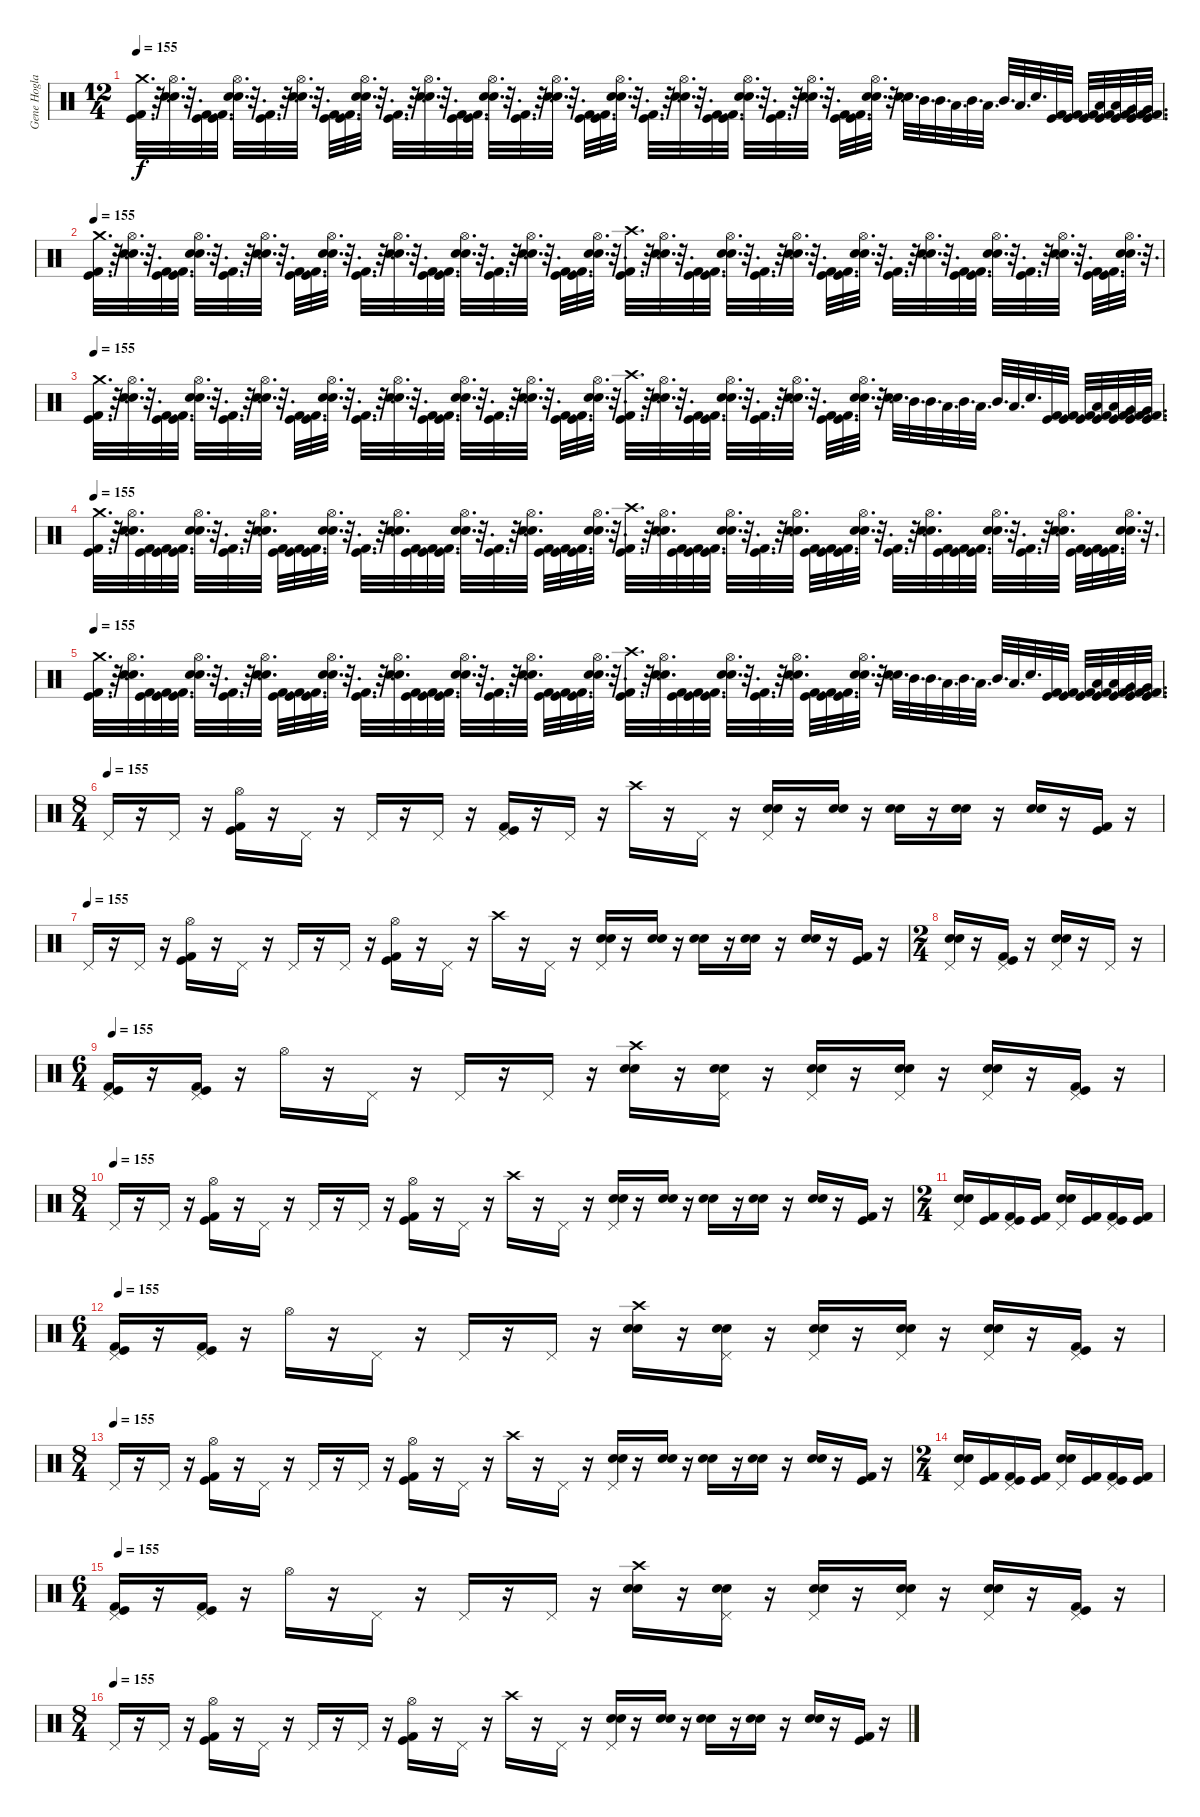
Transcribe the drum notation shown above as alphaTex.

\track ("Gene Hoglan" "Gene Hogla") {instrument percussion}
\staff {score}
\articulation defaults
\ts (12 4)
\tempo 155
\clef neutral
\ks c
("Crash medium (hit)" "Kick (hit)" "Kick (hit) 2").32{d dy f} r.32{d} ("Hi-Hat (open)" "Snare (hit) 2" "Electric Snare (hit)").32{d} r.32{d} ("Kick (hit) 2" "Kick (hit)").32{d} ("Kick (hit) 2" "Kick (hit)").32{d} ("Hi-Hat (open)" "Snare (hit) 2" "Electric Snare (hit)").32{d} r.32{d} ("Kick (hit) 2" "Kick (hit)").32{d} r.32{d} ("Hi-Hat (open)" "Snare (hit) 2" "Electric Snare (hit)").32{d} r.32{d} ("Kick (hit) 2" "Kick (hit)").32{d} ("Kick (hit) 2" "Kick (hit)").32{d} ("Hi-Hat (open)" "Snare (hit) 2" "Electric Snare (hit)").32{d} r.32{d} ("Kick (hit) 2" "Kick (hit)").32{d} r.32{d} ("Hi-Hat (open)" "Snare (hit) 2" "Electric Snare (hit)").32{d} r.32{d} ("Kick (hit) 2" "Kick (hit)").32{d} ("Kick (hit) 2" "Kick (hit)").32{d} ("Hi-Hat (open)" "Snare (hit) 2" "Electric Snare (hit)").32{d} r.32{d} ("Kick (hit) 2" "Kick (hit)").32{d} r.32{d} ("Hi-Hat (open)" "Snare (hit) 2" "Electric Snare (hit)").32{d} r.32{d} ("Kick (hit) 2" "Kick (hit)").32{d} ("Kick (hit) 2" "Kick (hit)").32{d} ("Hi-Hat (open)" "Snare (hit) 2" "Electric Snare (hit)").32{d} r.32{d} ("Kick (hit) 2" "Kick (hit)").32{d} r.32{d} ("Hi-Hat (open)" "Snare (hit) 2" "Electric Snare (hit)").32{d} r.32{d} ("Kick (hit) 2" "Kick (hit)").32{d} ("Kick (hit) 2" "Kick (hit)").32{d} ("Hi-Hat (open)" "Snare (hit) 2" "Electric Snare (hit)").32{d} r.32{d} ("Kick (hit) 2" "Kick (hit)").32{d} r.32{d} ("Hi-Hat (open)" "Snare (hit) 2" "Electric Snare (hit)").32{d} r.32{d} ("Kick (hit) 2" "Kick (hit)").32{d} ("Kick (hit) 2" "Kick (hit)").32{d} ("Hi-Hat (open)" "Snare (hit) 2" "Electric Snare (hit)").32{d} r.32{d} ("Snare (hit) 2" "Electric Snare (hit)").32{d} "Mid Tom (hit)".32{d} "Mid Tom (hit)".32{d} "Low Tom (hit)".32{d} "Mid Tom (hit)".32{d} "Low Tom (hit)".32{d} "Mid Tom (hit)".32{d} "Low Tom (hit)".32{d} "Electric Snare (hit)".32{d} ("Kick (hit) 2" "Kick (hit)").32{d} ("Kick (hit) 2" "Kick (hit)").32{d} ("Kick (hit) 2" "Kick (hit)").32{d} ("Low Tom (hit)" "Kick (hit) 2" "Kick (hit)").32{d} ("Low Tom (hit)" "Kick (hit) 2" "Kick (hit)").32{d} ("Very Low Tom (hit)" "Kick (hit) 2" "Kick (hit)").32{d} ("Very Low Tom (hit)" "Kick (hit) 2" "Kick (hit)").32{d} |
\tempo 155
("Crash medium (hit)" "Kick (hit)" "Kick (hit) 2").32{d} r.32{d} ("Hi-Hat (open)" "Snare (hit) 2" "Electric Snare (hit)").32{d} r.32{d} ("Kick (hit) 2" "Kick (hit)").32{d} ("Kick (hit) 2" "Kick (hit)").32{d} ("Hi-Hat (open)" "Snare (hit) 2" "Electric Snare (hit)").32{d} r.32{d} ("Kick (hit) 2" "Kick (hit)").32{d} r.32{d} ("Hi-Hat (open)" "Snare (hit) 2" "Electric Snare (hit)").32{d} r.32{d} ("Kick (hit) 2" "Kick (hit)").32{d} ("Kick (hit) 2" "Kick (hit)").32{d} ("Hi-Hat (open)" "Snare (hit) 2" "Electric Snare (hit)").32{d} r.32{d} ("Kick (hit) 2" "Kick (hit)").32{d} r.32{d} ("Hi-Hat (open)" "Snare (hit) 2" "Electric Snare (hit)").32{d} r.32{d} ("Kick (hit) 2" "Kick (hit)").32{d} ("Kick (hit) 2" "Kick (hit)").32{d} ("Hi-Hat (open)" "Snare (hit) 2" "Electric Snare (hit)").32{d} r.32{d} ("Kick (hit) 2" "Kick (hit)").32{d} r.32{d} ("Hi-Hat (open)" "Snare (hit) 2" "Electric Snare (hit)").32{d} r.32{d} ("Kick (hit) 2" "Kick (hit)").32{d} ("Kick (hit) 2" "Kick (hit)").32{d} ("Hi-Hat (open)" "Snare (hit) 2" "Electric Snare (hit)").32{d} r.32{d} ("Crash high (hit)" "Kick (hit) 2" "Kick (hit)").32{d} r.32{d} ("Hi-Hat (open)" "Snare (hit) 2" "Electric Snare (hit)").32{d} r.32{d} ("Kick (hit) 2" "Kick (hit)").32{d} ("Kick (hit) 2" "Kick (hit)").32{d} ("Hi-Hat (open)" "Snare (hit) 2" "Electric Snare (hit)").32{d} r.32{d} ("Kick (hit) 2" "Kick (hit)").32{d} r.32{d} ("Hi-Hat (open)" "Snare (hit) 2" "Electric Snare (hit)").32{d} r.32{d} ("Kick (hit) 2" "Kick (hit)").32{d} ("Kick (hit) 2" "Kick (hit)").32{d} ("Hi-Hat (open)" "Snare (hit) 2" "Electric Snare (hit)").32{d} r.32{d} ("Kick (hit) 2" "Kick (hit)").32{d} r.32{d} ("Hi-Hat (open)" "Snare (hit) 2" "Electric Snare (hit)").32{d} r.32{d} ("Kick (hit) 2" "Kick (hit)").32{d} ("Kick (hit) 2" "Kick (hit)").32{d} ("Hi-Hat (open)" "Snare (hit) 2" "Electric Snare (hit)").32{d} r.32{d} ("Kick (hit) 2" "Kick (hit)").32{d} r.32{d} ("Hi-Hat (open)" "Snare (hit) 2" "Electric Snare (hit)").32{d} r.32{d} ("Kick (hit) 2" "Kick (hit)").32{d} ("Kick (hit) 2" "Kick (hit)").32{d} ("Hi-Hat (open)" "Snare (hit) 2" "Electric Snare (hit)").32{d} r.32{d} |
\tempo 155
("Crash medium (hit)" "Kick (hit)" "Kick (hit) 2").32{d} r.32{d} ("Hi-Hat (open)" "Snare (hit) 2" "Electric Snare (hit)").32{d} r.32{d} ("Kick (hit) 2" "Kick (hit)").32{d} ("Kick (hit) 2" "Kick (hit)").32{d} ("Hi-Hat (open)" "Snare (hit) 2" "Electric Snare (hit)").32{d} r.32{d} ("Kick (hit) 2" "Kick (hit)").32{d} r.32{d} ("Hi-Hat (open)" "Snare (hit) 2" "Electric Snare (hit)").32{d} r.32{d} ("Kick (hit) 2" "Kick (hit)").32{d} ("Kick (hit) 2" "Kick (hit)").32{d} ("Hi-Hat (open)" "Snare (hit) 2" "Electric Snare (hit)").32{d} r.32{d} ("Kick (hit) 2" "Kick (hit)").32{d} r.32{d} ("Hi-Hat (open)" "Snare (hit) 2" "Electric Snare (hit)").32{d} r.32{d} ("Kick (hit) 2" "Kick (hit)").32{d} ("Kick (hit) 2" "Kick (hit)").32{d} ("Hi-Hat (open)" "Snare (hit) 2" "Electric Snare (hit)").32{d} r.32{d} ("Kick (hit) 2" "Kick (hit)").32{d} r.32{d} ("Hi-Hat (open)" "Snare (hit) 2" "Electric Snare (hit)").32{d} r.32{d} ("Kick (hit) 2" "Kick (hit)").32{d} ("Kick (hit) 2" "Kick (hit)").32{d} ("Hi-Hat (open)" "Snare (hit) 2" "Electric Snare (hit)").32{d} r.32{d} ("Crash high (hit)" "Kick (hit) 2" "Kick (hit)").32{d} r.32{d} ("Hi-Hat (open)" "Snare (hit) 2" "Electric Snare (hit)").32{d} r.32{d} ("Kick (hit) 2" "Kick (hit)").32{d} ("Kick (hit) 2" "Kick (hit)").32{d} ("Hi-Hat (open)" "Snare (hit) 2" "Electric Snare (hit)").32{d} r.32{d} ("Kick (hit) 2" "Kick (hit)").32{d} r.32{d} ("Hi-Hat (open)" "Snare (hit) 2" "Electric Snare (hit)").32{d} r.32{d} ("Kick (hit) 2" "Kick (hit)").32{d} ("Kick (hit) 2" "Kick (hit)").32{d} ("Hi-Hat (open)" "Snare (hit) 2" "Electric Snare (hit)").32{d} r.32{d} ("Snare (hit) 2" "Electric Snare (hit)").32{d} "Mid Tom (hit)".32{d} "Mid Tom (hit)".32{d} "Low Tom (hit)".32{d} "Mid Tom (hit)".32{d} "Low Tom (hit)".32{d} "Mid Tom (hit)".32{d} "Low Tom (hit)".32{d} "Electric Snare (hit)".32{d} ("Kick (hit) 2" "Kick (hit)").32{d} ("Kick (hit) 2" "Kick (hit)").32{d} ("Kick (hit) 2" "Kick (hit)").32{d} ("Low Tom (hit)" "Kick (hit) 2" "Kick (hit)").32{d} ("Low Tom (hit)" "Kick (hit) 2" "Kick (hit)").32{d} ("Very Low Tom (hit)" "Kick (hit) 2" "Kick (hit)").32{d} ("Very Low Tom (hit)" "Kick (hit) 2" "Kick (hit)").32{d} |
\tempo 155
("Crash medium (hit)" "Kick (hit)" "Kick (hit) 2").32{d} r.32{d} ("Hi-Hat (open)" "Snare (hit) 2" "Electric Snare (hit)").32{d} ("Kick (hit) 2" "Kick (hit)").32{d} ("Kick (hit) 2" "Kick (hit)").32{d} ("Kick (hit) 2" "Kick (hit)").32{d} ("Hi-Hat (open)" "Snare (hit) 2" "Electric Snare (hit)").32{d} r.32{d} ("Kick (hit) 2" "Kick (hit)").32{d} r.32{d} ("Hi-Hat (open)" "Snare (hit) 2" "Electric Snare (hit)").32{d} ("Kick (hit) 2" "Kick (hit)").32{d} ("Kick (hit) 2" "Kick (hit)").32{d} ("Kick (hit) 2" "Kick (hit)").32{d} ("Hi-Hat (open)" "Snare (hit) 2" "Electric Snare (hit)").32{d} r.32{d} ("Kick (hit) 2" "Kick (hit)").32{d} r.32{d} ("Hi-Hat (open)" "Snare (hit) 2" "Electric Snare (hit)").32{d} ("Kick (hit) 2" "Kick (hit)").32{d} ("Kick (hit) 2" "Kick (hit)").32{d} ("Kick (hit) 2" "Kick (hit)").32{d} ("Hi-Hat (open)" "Snare (hit) 2" "Electric Snare (hit)").32{d} r.32{d} ("Kick (hit) 2" "Kick (hit)").32{d} r.32{d} ("Hi-Hat (open)" "Snare (hit) 2" "Electric Snare (hit)").32{d} ("Kick (hit) 2" "Kick (hit)").32{d} ("Kick (hit) 2" "Kick (hit)").32{d} ("Kick (hit) 2" "Kick (hit)").32{d} ("Hi-Hat (open)" "Snare (hit) 2" "Electric Snare (hit)").32{d} r.32{d} ("Crash high (hit)" "Kick (hit) 2" "Kick (hit)").32{d} r.32{d} ("Hi-Hat (open)" "Snare (hit) 2" "Electric Snare (hit)").32{d} ("Kick (hit) 2" "Kick (hit)").32{d} ("Kick (hit) 2" "Kick (hit)").32{d} ("Kick (hit) 2" "Kick (hit)").32{d} ("Hi-Hat (open)" "Snare (hit) 2" "Electric Snare (hit)").32{d} r.32{d} ("Kick (hit) 2" "Kick (hit)").32{d} r.32{d} ("Hi-Hat (open)" "Snare (hit) 2" "Electric Snare (hit)").32{d} ("Kick (hit) 2" "Kick (hit)").32{d} ("Kick (hit) 2" "Kick (hit)").32{d} ("Kick (hit) 2" "Kick (hit)").32{d} ("Hi-Hat (open)" "Snare (hit) 2" "Electric Snare (hit)").32{d} r.32{d} ("Kick (hit) 2" "Kick (hit)").32{d} r.32{d} ("Hi-Hat (open)" "Snare (hit) 2" "Electric Snare (hit)").32{d} ("Kick (hit) 2" "Kick (hit)").32{d} ("Kick (hit) 2" "Kick (hit)").32{d} ("Kick (hit) 2" "Kick (hit)").32{d} ("Hi-Hat (open)" "Snare (hit) 2" "Electric Snare (hit)").32{d} r.32{d} ("Kick (hit) 2" "Kick (hit)").32{d} r.32{d} ("Hi-Hat (open)" "Snare (hit) 2" "Electric Snare (hit)").32{d} ("Kick (hit) 2" "Kick (hit)").32{d} ("Kick (hit) 2" "Kick (hit)").32{d} ("Kick (hit) 2" "Kick (hit)").32{d} ("Hi-Hat (open)" "Snare (hit) 2" "Electric Snare (hit)").32{d} r.32{d} |
\tempo 155
("Crash medium (hit)" "Kick (hit)" "Kick (hit) 2").32{d} r.32{d} ("Hi-Hat (open)" "Snare (hit) 2" "Electric Snare (hit)").32{d} ("Kick (hit) 2" "Kick (hit)").32{d} ("Kick (hit) 2" "Kick (hit)").32{d} ("Kick (hit) 2" "Kick (hit)").32{d} ("Hi-Hat (open)" "Snare (hit) 2" "Electric Snare (hit)").32{d} r.32{d} ("Kick (hit) 2" "Kick (hit)").32{d} r.32{d} ("Hi-Hat (open)" "Snare (hit) 2" "Electric Snare (hit)").32{d} ("Kick (hit) 2" "Kick (hit)").32{d} ("Kick (hit) 2" "Kick (hit)").32{d} ("Kick (hit) 2" "Kick (hit)").32{d} ("Hi-Hat (open)" "Snare (hit) 2" "Electric Snare (hit)").32{d} r.32{d} ("Kick (hit) 2" "Kick (hit)").32{d} r.32{d} ("Hi-Hat (open)" "Snare (hit) 2" "Electric Snare (hit)").32{d} ("Kick (hit) 2" "Kick (hit)").32{d} ("Kick (hit) 2" "Kick (hit)").32{d} ("Kick (hit) 2" "Kick (hit)").32{d} ("Hi-Hat (open)" "Snare (hit) 2" "Electric Snare (hit)").32{d} r.32{d} ("Kick (hit) 2" "Kick (hit)").32{d} r.32{d} ("Hi-Hat (open)" "Snare (hit) 2" "Electric Snare (hit)").32{d} ("Kick (hit) 2" "Kick (hit)").32{d} ("Kick (hit) 2" "Kick (hit)").32{d} ("Kick (hit) 2" "Kick (hit)").32{d} ("Hi-Hat (open)" "Snare (hit) 2" "Electric Snare (hit)").32{d} r.32{d} ("Crash high (hit)" "Kick (hit) 2" "Kick (hit)").32{d} r.32{d} ("Hi-Hat (open)" "Snare (hit) 2" "Electric Snare (hit)").32{d} ("Kick (hit) 2" "Kick (hit)").32{d} ("Kick (hit) 2" "Kick (hit)").32{d} ("Kick (hit) 2" "Kick (hit)").32{d} ("Hi-Hat (open)" "Snare (hit) 2" "Electric Snare (hit)").32{d} r.32{d} ("Kick (hit) 2" "Kick (hit)").32{d} r.32{d} ("Hi-Hat (open)" "Snare (hit) 2" "Electric Snare (hit)").32{d} ("Kick (hit) 2" "Kick (hit)").32{d} ("Kick (hit) 2" "Kick (hit)").32{d} ("Kick (hit) 2" "Kick (hit)").32{d} ("Hi-Hat (open)" "Snare (hit) 2" "Electric Snare (hit)").32{d} r.32{d} ("Snare (hit) 2" "Electric Snare (hit)").32{d} "Mid Tom (hit)".32{d} "Mid Tom (hit)".32{d} "Low Tom (hit)".32{d} "Mid Tom (hit)".32{d} "Low Tom (hit)".32{d} "Mid Tom (hit)".32{d} "Low Tom (hit)".32{d} "Electric Snare (hit)".32{d} ("Kick (hit) 2" "Kick (hit)").32{d} ("Kick (hit) 2" "Kick (hit)").32{d} ("Kick (hit) 2" "Kick (hit)").32{d} ("Low Tom (hit)" "Kick (hit) 2" "Kick (hit)").32{d} ("Low Tom (hit)" "Kick (hit) 2" "Kick (hit)").32{d} ("Very Low Tom (hit)" "Kick (hit) 2" "Kick (hit)").32{d} ("Very Low Tom (hit)" "Kick (hit) 2" "Kick (hit)").32{d} |
\ts (8 4)
\tempo (155)
"Pedal Hi-Hat (hit)".16 r.16 "Pedal Hi-Hat (hit)".16 r.16 ("Hi-Hat (open)" "Kick (hit)" "Kick (hit) 2").16 r.16 "Pedal Hi-Hat (hit)".16 r.16 "Pedal Hi-Hat (hit)".16 r.16 "Pedal Hi-Hat (hit)".16 r.16 ("Pedal Hi-Hat (hit)" "Kick (hit)" "Kick (hit) 2").16 r.16 "Pedal Hi-Hat (hit)".16 r.16 "Crash high (hit)".16 r.16 "Pedal Hi-Hat (hit)".16 r.16 ("Pedal Hi-Hat (hit)" "Snare (hit) 2" "Electric Snare (hit)").16 r.16 ("Snare (hit) 2" "Electric Snare (hit)").16 r.16 ("Snare (hit) 2" "Electric Snare (hit)").16 r.16 ("Snare (hit) 2" "Electric Snare (hit)").16 r.16 ("Snare (hit) 2" "Electric Snare (hit)").16 r.16 ("Kick (hit)" "Kick (hit) 2").16 r.16 |
\tempo (155)
"Pedal Hi-Hat (hit)".16 r.16 "Pedal Hi-Hat (hit)".16 r.16 ("Hi-Hat (open)" "Kick (hit)" "Kick (hit) 2").16 r.16 "Pedal Hi-Hat (hit)".16 r.16 "Pedal Hi-Hat (hit)".16 r.16 "Pedal Hi-Hat (hit)".16 r.16 ("Hi-Hat (open)" "Kick (hit)" "Kick (hit) 2").16 r.16 "Pedal Hi-Hat (hit)".16 r.16 "Crash high (hit)".16 r.16 "Pedal Hi-Hat (hit)".16 r.16 ("Pedal Hi-Hat (hit)" "Snare (hit) 2" "Electric Snare (hit)").16 r.16 ("Snare (hit) 2" "Electric Snare (hit)").16 r.16 ("Snare (hit) 2" "Electric Snare (hit)").16 r.16 ("Snare (hit) 2" "Electric Snare (hit)").16 r.16 ("Snare (hit) 2" "Electric Snare (hit)").16 r.16 ("Kick (hit)" "Kick (hit) 2").16 r.16 |
\ts (2 4)
("Pedal Hi-Hat (hit)" "Electric Snare (hit)" "Snare (hit) 2").16 r.16 ("Pedal Hi-Hat (hit)" "Kick (hit) 2" "Kick (hit)").16 r.16 ("Pedal Hi-Hat (hit)" "Electric Snare (hit)" "Snare (hit) 2").16 r.16 "Pedal Hi-Hat (hit)".16 r.16 |
\ts (6 4)
\tempo 155
("Pedal Hi-Hat (hit)" "Kick (hit)" "Kick (hit) 2").16 r.16 ("Pedal Hi-Hat (hit)" "Kick (hit)" "Kick (hit) 2").16 r.16 "Hi-Hat (open)".16 r.16 "Pedal Hi-Hat (hit)".16 r.16 "Pedal Hi-Hat (hit)".16 r.16 "Pedal Hi-Hat (hit)".16 r.16 ("Crash high (hit)" "Electric Snare (hit)" "Snare (hit) 2").16 r.16 ("Pedal Hi-Hat (hit)" "Electric Snare (hit)" "Snare (hit) 2").16 r.16 ("Pedal Hi-Hat (hit)" "Electric Snare (hit)" "Snare (hit) 2").16 r.16 ("Pedal Hi-Hat (hit)" "Electric Snare (hit)" "Snare (hit) 2").16 r.16 ("Pedal Hi-Hat (hit)" "Electric Snare (hit)" "Snare (hit) 2").16 r.16 ("Pedal Hi-Hat (hit)" "Kick (hit)" "Kick (hit) 2").16 r.16 |
\ts (8 4)
\tempo (155)
"Pedal Hi-Hat (hit)".16 r.16 "Pedal Hi-Hat (hit)".16 r.16 ("Hi-Hat (open)" "Kick (hit)" "Kick (hit) 2").16 r.16 "Pedal Hi-Hat (hit)".16 r.16 "Pedal Hi-Hat (hit)".16 r.16 "Pedal Hi-Hat (hit)".16 r.16 ("Hi-Hat (open)" "Kick (hit)" "Kick (hit) 2").16 r.16 "Pedal Hi-Hat (hit)".16 r.16 "Crash high (hit)".16 r.16 "Pedal Hi-Hat (hit)".16 r.16 ("Pedal Hi-Hat (hit)" "Snare (hit) 2" "Electric Snare (hit)").16 r.16 ("Snare (hit) 2" "Electric Snare (hit)").16 r.16 ("Snare (hit) 2" "Electric Snare (hit)").16 r.16 ("Snare (hit) 2" "Electric Snare (hit)").16 r.16 ("Snare (hit) 2" "Electric Snare (hit)").16 r.16 ("Kick (hit)" "Kick (hit) 2").16 r.16 |
\ts (2 4)
("Pedal Hi-Hat (hit)" "Electric Snare (hit)" "Snare (hit) 2").16 ("Kick (hit) 2" "Kick (hit)").16 ("Pedal Hi-Hat (hit)" "Kick (hit) 2" "Kick (hit)").16 ("Kick (hit) 2" "Kick (hit)").16 ("Pedal Hi-Hat (hit)" "Electric Snare (hit)" "Snare (hit) 2").16 ("Kick (hit) 2" "Kick (hit)").16 ("Pedal Hi-Hat (hit)" "Kick (hit) 2" "Kick (hit)").16 ("Kick (hit) 2" "Kick (hit)").16 |
\ts (6 4)
\tempo 155
("Pedal Hi-Hat (hit)" "Kick (hit)" "Kick (hit) 2").16 r.16 ("Pedal Hi-Hat (hit)" "Kick (hit)" "Kick (hit) 2").16 r.16 "Hi-Hat (open)".16 r.16 "Pedal Hi-Hat (hit)".16 r.16 "Pedal Hi-Hat (hit)".16 r.16 "Pedal Hi-Hat (hit)".16 r.16 ("Crash high (hit)" "Electric Snare (hit)" "Snare (hit) 2").16 r.16 ("Pedal Hi-Hat (hit)" "Electric Snare (hit)" "Snare (hit) 2").16 r.16 ("Pedal Hi-Hat (hit)" "Electric Snare (hit)" "Snare (hit) 2").16 r.16 ("Pedal Hi-Hat (hit)" "Electric Snare (hit)" "Snare (hit) 2").16 r.16 ("Pedal Hi-Hat (hit)" "Electric Snare (hit)" "Snare (hit) 2").16 r.16 ("Pedal Hi-Hat (hit)" "Kick (hit)" "Kick (hit) 2").16 r.16 |
\ts (8 4)
\tempo (155)
"Pedal Hi-Hat (hit)".16 r.16 "Pedal Hi-Hat (hit)".16 r.16 ("Hi-Hat (open)" "Kick (hit)" "Kick (hit) 2").16 r.16 "Pedal Hi-Hat (hit)".16 r.16 "Pedal Hi-Hat (hit)".16 r.16 "Pedal Hi-Hat (hit)".16 r.16 ("Hi-Hat (open)" "Kick (hit)" "Kick (hit) 2").16 r.16 "Pedal Hi-Hat (hit)".16 r.16 "Crash high (hit)".16 r.16 "Pedal Hi-Hat (hit)".16 r.16 ("Pedal Hi-Hat (hit)" "Snare (hit) 2" "Electric Snare (hit)").16 r.16 ("Snare (hit) 2" "Electric Snare (hit)").16 r.16 ("Snare (hit) 2" "Electric Snare (hit)").16 r.16 ("Snare (hit) 2" "Electric Snare (hit)").16 r.16 ("Snare (hit) 2" "Electric Snare (hit)").16 r.16 ("Kick (hit)" "Kick (hit) 2").16 r.16 |
\ts (2 4)
("Pedal Hi-Hat (hit)" "Electric Snare (hit)" "Snare (hit) 2").16 ("Kick (hit) 2" "Kick (hit)").16 ("Pedal Hi-Hat (hit)" "Kick (hit) 2" "Kick (hit)").16 ("Kick (hit) 2" "Kick (hit)").16 ("Pedal Hi-Hat (hit)" "Electric Snare (hit)" "Snare (hit) 2").16 ("Kick (hit) 2" "Kick (hit)").16 ("Pedal Hi-Hat (hit)" "Kick (hit) 2" "Kick (hit)").16 ("Kick (hit) 2" "Kick (hit)").16 |
\ts (6 4)
\tempo 155
("Pedal Hi-Hat (hit)" "Kick (hit)" "Kick (hit) 2").16 r.16 ("Pedal Hi-Hat (hit)" "Kick (hit)" "Kick (hit) 2").16 r.16 "Hi-Hat (open)".16 r.16 "Pedal Hi-Hat (hit)".16 r.16 "Pedal Hi-Hat (hit)".16 r.16 "Pedal Hi-Hat (hit)".16 r.16 ("Crash high (hit)" "Electric Snare (hit)" "Snare (hit) 2").16 r.16 ("Pedal Hi-Hat (hit)" "Electric Snare (hit)" "Snare (hit) 2").16 r.16 ("Pedal Hi-Hat (hit)" "Electric Snare (hit)" "Snare (hit) 2").16 r.16 ("Pedal Hi-Hat (hit)" "Electric Snare (hit)" "Snare (hit) 2").16 r.16 ("Pedal Hi-Hat (hit)" "Electric Snare (hit)" "Snare (hit) 2").16 r.16 ("Pedal Hi-Hat (hit)" "Kick (hit)" "Kick (hit) 2").16 r.16 |
\ts (8 4)
\tempo (155)
"Pedal Hi-Hat (hit)".16 r.16 "Pedal Hi-Hat (hit)".16 r.16 ("Hi-Hat (open)" "Kick (hit)" "Kick (hit) 2").16 r.16 "Pedal Hi-Hat (hit)".16 r.16 "Pedal Hi-Hat (hit)".16 r.16 "Pedal Hi-Hat (hit)".16 r.16 ("Hi-Hat (open)" "Kick (hit)" "Kick (hit) 2").16 r.16 "Pedal Hi-Hat (hit)".16 r.16 "Crash high (hit)".16 r.16 "Pedal Hi-Hat (hit)".16 r.16 ("Pedal Hi-Hat (hit)" "Snare (hit) 2" "Electric Snare (hit)").16 r.16 ("Snare (hit) 2" "Electric Snare (hit)").16 r.16 ("Snare (hit) 2" "Electric Snare (hit)").16 r.16 ("Snare (hit) 2" "Electric Snare (hit)").16 r.16 ("Snare (hit) 2" "Electric Snare (hit)").16 r.16 ("Kick (hit)" "Kick (hit) 2").16 r.16
